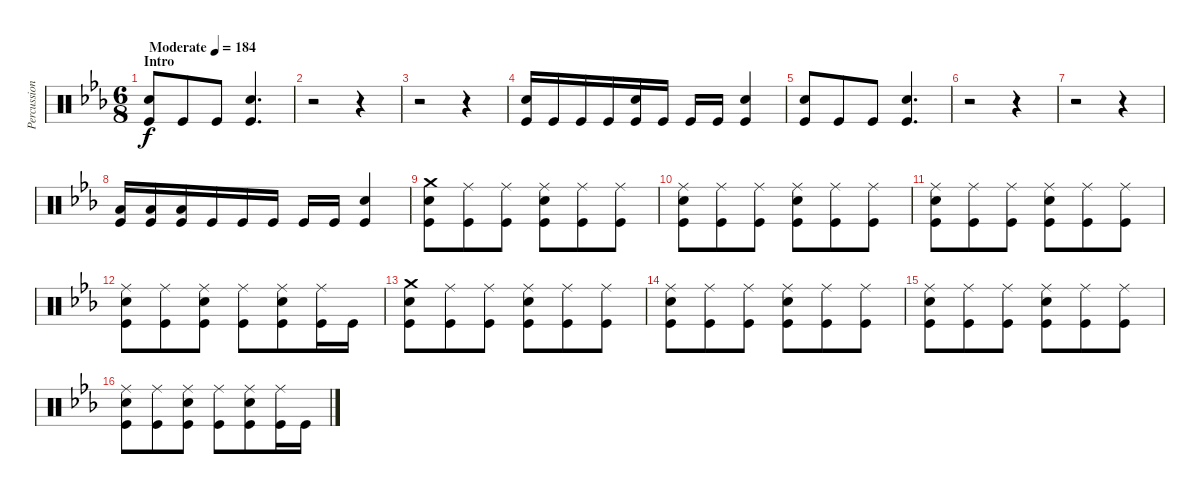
\track ("Percussion" "Percussion") {instrument percussion}
\staff {score}
\articulation defaults
\ts (6 8)
\section ("" "Intro")
\tempo (184 "Moderate")
\clef neutral
\ks eb
("Electric Snare (hit)" "Kick (hit)").8{dy f} "Kick (hit)".8 "Kick (hit)".8 ("Electric Snare (hit)" "Kick (hit)").4{d} |
r.2 r.4 |
r.2 r.4 |
("Electric Snare (hit)" "Kick (hit)").16 "Kick (hit)".16 "Kick (hit)".16 "Kick (hit)".16 ("Electric Snare (hit)" "Kick (hit)").16 "Kick (hit)".16 "Kick (hit)".16 "Kick (hit)".16 ("Electric Snare (hit)" "Kick (hit)").4 |
("Electric Snare (hit)" "Kick (hit)").8 "Kick (hit)".8 "Kick (hit)".8 ("Electric Snare (hit)" "Kick (hit)").4{d} |
r.2 r.4 |
r.2 r.4 |
("Low Tom (hit)" "Kick (hit)").16 ("Low Tom (hit)" "Kick (hit)").16 ("Low Tom (hit)" "Kick (hit)").16 "Kick (hit)".16 "Kick (hit)".16 "Kick (hit)".16 "Kick (hit)".16 "Kick (hit)".16 ("Electric Snare (hit)" "Kick (hit)").4 |
("Crash medium (hit)" "Electric Snare (hit)" "Kick (hit)").8 ("Ride (middle)" "Kick (hit)").8 ("Ride (middle)" "Kick (hit)").8 ("Ride (middle)" "Electric Snare (hit)" "Kick (hit)").8 ("Ride (middle)" "Kick (hit)").8 ("Ride (middle)" "Kick (hit)").8 |
("Ride (middle)" "Electric Snare (hit)" "Kick (hit)").8 ("Ride (middle)" "Kick (hit)").8 ("Ride (middle)" "Kick (hit)").8 ("Ride (middle)" "Electric Snare (hit)" "Kick (hit)").8 ("Ride (middle)" "Kick (hit)").8 ("Ride (middle)" "Kick (hit)").8 |
("Ride (middle)" "Electric Snare (hit)" "Kick (hit)").8 ("Ride (middle)" "Kick (hit)").8 ("Ride (middle)" "Kick (hit)").8 ("Ride (middle)" "Electric Snare (hit)" "Kick (hit)").8 ("Ride (middle)" "Kick (hit)").8 ("Ride (middle)" "Kick (hit)").8 |
("Ride (middle)" "Electric Snare (hit)" "Kick (hit)").8 ("Ride (middle)" "Kick (hit)").8 ("Ride (middle)" "Electric Snare (hit)" "Kick (hit)").8 ("Ride (middle)" "Kick (hit)").8 ("Ride (middle)" "Electric Snare (hit)" "Kick (hit)").8 ("Ride (middle)" "Kick (hit)").16 "Kick (hit)".16 |
("Crash medium (hit)" "Electric Snare (hit)" "Kick (hit)").8 ("Ride (middle)" "Kick (hit)").8 ("Ride (middle)" "Kick (hit)").8 ("Ride (middle)" "Electric Snare (hit)" "Kick (hit)").8 ("Ride (middle)" "Kick (hit)").8 ("Ride (middle)" "Kick (hit)").8 |
("Ride (middle)" "Electric Snare (hit)" "Kick (hit)").8 ("Ride (middle)" "Kick (hit)").8 ("Ride (middle)" "Kick (hit)").8 ("Ride (middle)" "Electric Snare (hit)" "Kick (hit)").8 ("Ride (middle)" "Kick (hit)").8 ("Ride (middle)" "Kick (hit)").8 |
("Ride (middle)" "Electric Snare (hit)" "Kick (hit)").8 ("Ride (middle)" "Kick (hit)").8 ("Ride (middle)" "Kick (hit)").8 ("Ride (middle)" "Electric Snare (hit)" "Kick (hit)").8 ("Ride (middle)" "Kick (hit)").8 ("Ride (middle)" "Kick (hit)").8 |
("Ride (middle)" "Electric Snare (hit)" "Kick (hit)").8 ("Ride (middle)" "Kick (hit)").8 ("Ride (middle)" "Electric Snare (hit)" "Kick (hit)").8 ("Ride (middle)" "Kick (hit)").8 ("Ride (middle)" "Electric Snare (hit)" "Kick (hit)").8 ("Ride (middle)" "Kick (hit)").16 "Kick (hit)".16
